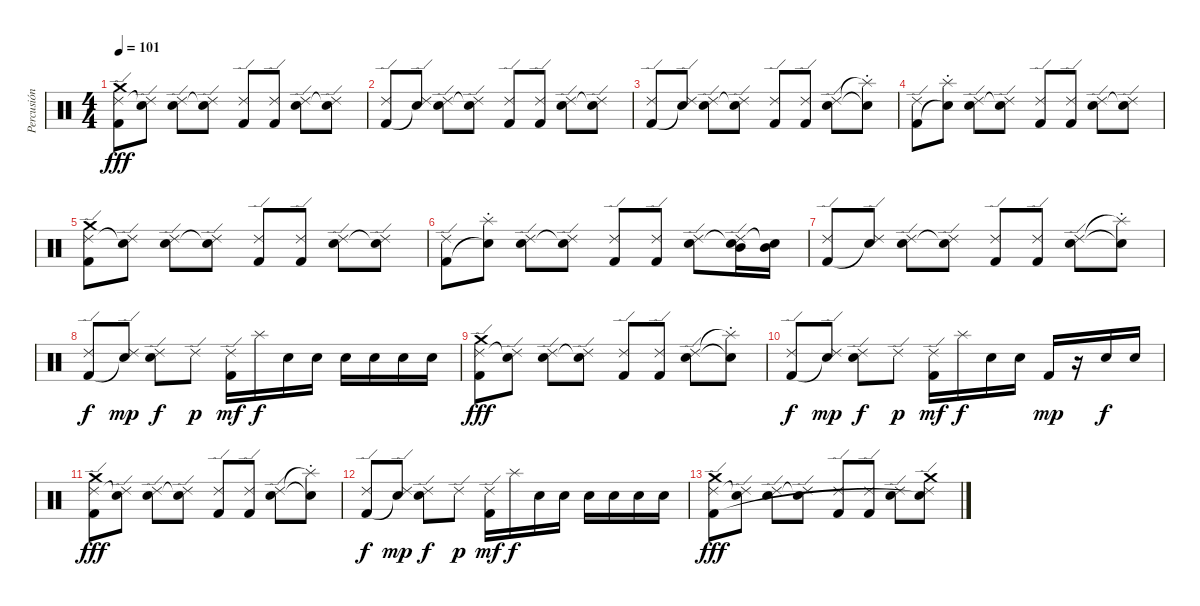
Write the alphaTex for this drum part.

\track ("Percusión" "Percusión") {instrument percussion}
\staff {score}
\articulation defaults
\ts (4 4)
\tempo 101
\clef neutral
\ks c
("Crash medium (hit)" "Ride (edge) 2" "Kick (hit) 2").8{dy fff} ("Ride (edge) 2" "Snare (hit)"{t}).8 ("Ride (edge) 2" "Snare (hit) 2").8 ("Ride (edge) 2" "Snare (hit)"{t}).8 ("Ride (edge) 2" "Kick (hit) 2").8 ("Ride (edge) 2" "Kick (hit) 2").8 ("Ride (edge) 2" "Snare (hit) 2").8 ("Ride (edge) 2" "Snare (hit)"{t}).8 |
("Ride (edge) 2" "Kick (hit) 2").8 ("Ride (edge) 2" "Snare (hit)"{t}).8 ("Ride (edge) 2" "Snare (hit) 2").8 ("Ride (edge) 2" "Snare (hit)"{t}).8 ("Ride (edge) 2" "Kick (hit) 2").8 ("Ride (edge) 2" "Kick (hit) 2").8 ("Ride (edge) 2" "Snare (hit) 2").8 ("Ride (edge) 2" "Snare (hit)"{t}).8 |
("Ride (edge) 2" "Kick (hit) 2").8 ("Ride (edge) 2" "Snare (hit)"{t}).8 ("Ride (edge) 2" "Snare (hit) 2").8 ("Ride (edge) 2" "Snare (hit)"{t}).8 ("Ride (edge) 2" "Kick (hit) 2").8 ("Ride (edge) 2" "Kick (hit) 2").8 ("Ride (edge) 2" "Snare (hit) 2").8 ("Splash (choke)"{t} "Snare (hit)"{t}).8 |
("Ride (edge) 2" "Kick (hit) 2").8 ("Splash (choke)" "Snare (hit)"{t}).8 ("Ride (edge) 2" "Snare (hit) 2").8 ("Ride (edge) 2" "Snare (hit)"{t}).8 ("Ride (edge) 2" "Kick (hit) 2").8 ("Ride (edge) 2" "Kick (hit) 2").8 ("Ride (edge) 2" "Snare (hit) 2").8 ("Ride (edge) 2" "Snare (hit)"{t}).8 |
("Crash medium (hit)" "Ride (edge) 2" "Kick (hit) 2").8 ("Ride (edge) 2" "Snare (hit)"{t}).8 ("Ride (edge) 2" "Snare (hit) 2").8 ("Ride (edge) 2" "Snare (hit)"{t}).8 ("Ride (edge) 2" "Kick (hit) 2").8 ("Ride (edge) 2" "Kick (hit) 2").8 ("Ride (edge) 2" "Snare (hit) 2").8 ("Ride (edge) 2" "Snare (hit)"{t}).8 |
("Ride (edge) 2" "Kick (hit) 2").8 ("Splash (choke)" "Snare (hit)"{t}).8 ("Ride (edge) 2" "Snare (hit) 2").8 ("Ride (edge) 2" "Snare (hit)"{t}).8 ("Ride (edge) 2" "Kick (hit) 2").8 ("Ride (edge) 2" "Kick (hit) 2").8 ("Ride (edge) 2" "Snare (hit) 2").8 ("Ride (edge) 2" "Snare (hit)"{t} "Mid Tom (hit)").16 ("Snare (hit)"{t} "Mid Tom (hit)").16 |
("Ride (edge) 2" "Kick (hit) 2").8 ("Ride (edge) 2" "Snare (hit)"{t}).8 ("Ride (edge) 2" "Snare (hit) 2").8 ("Ride (edge) 2" "Snare (hit)"{t}).8 ("Ride (edge) 2" "Kick (hit) 2").8 ("Ride (edge) 2" "Kick (hit) 2").8 ("Ride (edge) 2" "Snare (hit) 2").8 ("Splash (choke)"{t} "Snare (hit)"{t}).8 |
("Ride (edge) 2" "Kick (hit) 2").8{dy f} ("Ride (edge) 2" "Snare (hit)"{t}).8{dy mp} ("Ride (edge) 2" "Snare (hit) 2").8{dy f} "Ride (edge) 2".8{dy p} ("Ride (edge) 2" "Kick (hit) 2").16{dy mf} "Splash (hit)".16{dy f} "Electric Snare (hit)".16 "Electric Snare (hit)".16 "Electric Snare (hit)".16 "Electric Snare (hit)".16 "Electric Snare (hit)".16 "Electric Snare (hit)".16 |
("Crash medium (hit)" "Ride (edge) 2" "Kick (hit) 2").8{dy fff} ("Ride (edge) 2" "Snare (hit)"{t}).8 ("Ride (edge) 2" "Snare (hit) 2").8 ("Ride (edge) 2" "Snare (hit)"{t}).8 ("Ride (edge) 2" "Kick (hit) 2").8 ("Ride (edge) 2" "Kick (hit) 2").8 ("Ride (edge) 2" "Snare (hit) 2").8 ("Splash (choke)"{t} "Snare (hit)"{t}).8 |
("Ride (edge) 2" "Kick (hit) 2").8{dy f} ("Ride (edge) 2" "Snare (hit)"{t}).8{dy mp} ("Ride (edge) 2" "Snare (hit) 2").8{dy f} "Ride (edge) 2".8{dy p} ("Ride (edge) 2" "Kick (hit) 2").16{dy mf} "Splash (hit)".16{dy f} "Electric Snare (hit)".16 "Electric Snare (hit)".16 "Kick (hit) 2".16{dy mp} r.16 "Electric Snare (hit)".16{dy f} "Electric Snare (hit)".16 |
("Crash medium (hit)" "Ride (edge) 2" "Kick (hit) 2").8{dy fff} ("Ride (edge) 2" "Snare (hit)"{t}).8 ("Ride (edge) 2" "Snare (hit) 2").8 ("Ride (edge) 2" "Snare (hit)"{t}).8 ("Ride (edge) 2" "Kick (hit) 2").8 ("Ride (edge) 2" "Kick (hit) 2").8 ("Ride (edge) 2" "Snare (hit) 2").8 ("Splash (choke)"{t} "Snare (hit)"{t}).8 |
("Ride (edge) 2" "Kick (hit) 2").8{dy f} ("Ride (edge) 2" "Snare (hit)"{t}).8{dy mp} ("Ride (edge) 2" "Snare (hit) 2").8{dy f} "Ride (edge) 2".8{dy p} ("Ride (edge) 2" "Kick (hit) 2").16{dy mf} "Splash (hit)".16{dy f} "Electric Snare (hit)".16 "Electric Snare (hit)".16 "Electric Snare (hit)".16 "Electric Snare (hit)".16 "Electric Snare (hit)".16 "Electric Snare (hit)".16 |
("Crash medium (hit)" "Ride (edge) 2" "Kick (hit) 2").8{dy fff} ("Ride (edge) 2" "Snare (hit)"{t}).8 ("Ride (edge) 2" "Snare (hit) 2").8 ("Ride (edge) 2" "Snare (hit)"{t}).8 ("Ride (edge) 2" "Kick (hit) 2").8 ("Ride (edge) 2" "Kick (hit) 2").8 ("Ride (edge) 2" "Snare (hit) 2").8 ("Crash medium (hit)" "Ride (edge) 2" "Snare (hit)"{t}).8
